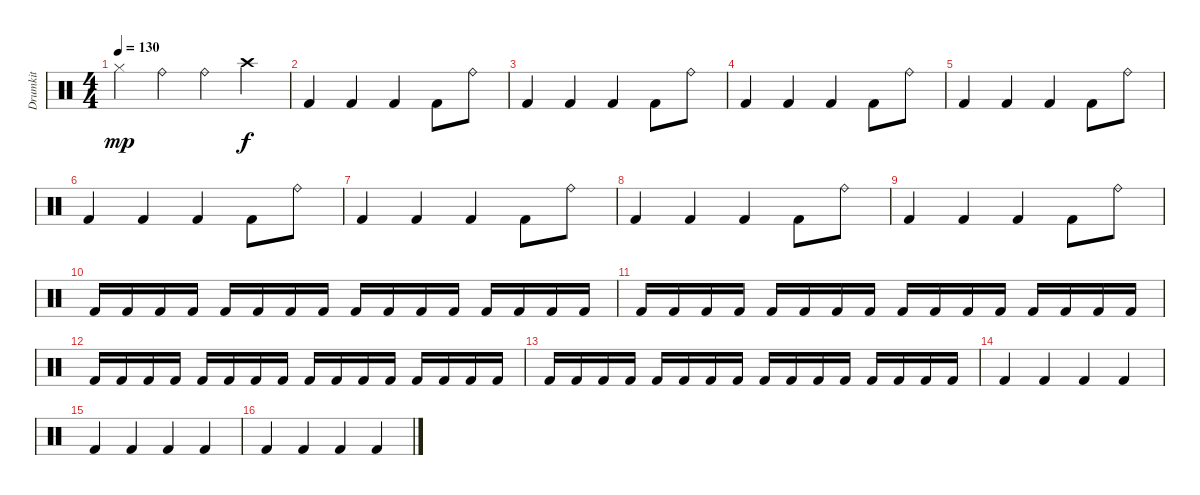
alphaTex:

\track ("Drumkit" "Drumkit") {instrument percussion}
\staff {score}
\articulation defaults
\ts (4 4)
\tempo 130
\clef neutral
\ks c "Hi-Hat (closed)".4{dy mp} "Ride (bell)".4 "Ride (bell)".4 "Crash high (hit)".4{dy f}
|
"Kick (hit) 2".4 "Kick (hit) 2".4 "Kick (hit) 2".4 "Kick (hit) 2".8 "Ride (bell)".8 |
"Kick (hit) 2".4 "Kick (hit) 2".4 "Kick (hit) 2".4 "Kick (hit) 2".8 "Ride (bell)".8 |
"Kick (hit) 2".4 "Kick (hit) 2".4 "Kick (hit) 2".4 "Kick (hit) 2".8 "Ride (bell)".8 |
"Kick (hit) 2".4 "Kick (hit) 2".4 "Kick (hit) 2".4 "Kick (hit) 2".8 "Ride (bell)".8 |
"Kick (hit) 2".4 "Kick (hit) 2".4 "Kick (hit) 2".4 "Kick (hit) 2".8 "Ride (bell)".8 |
"Kick (hit) 2".4 "Kick (hit) 2".4 "Kick (hit) 2".4 "Kick (hit) 2".8 "Ride (bell)".8 |
"Kick (hit) 2".4 "Kick (hit) 2".4 "Kick (hit) 2".4 "Kick (hit) 2".8 "Ride (bell)".8 |
"Kick (hit) 2".4 "Kick (hit) 2".4 "Kick (hit) 2".4 "Kick (hit) 2".8 "Ride (bell)".8 |
"Kick (hit) 2".16 "Kick (hit) 2".16 "Kick (hit) 2".16 "Kick (hit) 2".16 "Kick (hit) 2".16 "Kick (hit) 2".16 "Kick (hit) 2".16 "Kick (hit) 2".16 "Kick (hit) 2".16 "Kick (hit) 2".16 "Kick (hit) 2".16 "Kick (hit) 2".16 "Kick (hit) 2".16 "Kick (hit) 2".16 "Kick (hit) 2".16 "Kick (hit) 2".16 |
"Kick (hit) 2".16 "Kick (hit) 2".16 "Kick (hit) 2".16 "Kick (hit) 2".16 "Kick (hit) 2".16 "Kick (hit) 2".16 "Kick (hit) 2".16 "Kick (hit) 2".16 "Kick (hit) 2".16 "Kick (hit) 2".16 "Kick (hit) 2".16 "Kick (hit) 2".16 "Kick (hit) 2".16 "Kick (hit) 2".16 "Kick (hit) 2".16 "Kick (hit) 2".16 |
"Kick (hit) 2".16 "Kick (hit) 2".16 "Kick (hit) 2".16 "Kick (hit) 2".16 "Kick (hit) 2".16 "Kick (hit) 2".16 "Kick (hit) 2".16 "Kick (hit) 2".16 "Kick (hit) 2".16 "Kick (hit) 2".16 "Kick (hit) 2".16 "Kick (hit) 2".16 "Kick (hit) 2".16 "Kick (hit) 2".16 "Kick (hit) 2".16 "Kick (hit) 2".16 |
"Kick (hit) 2".16 "Kick (hit) 2".16 "Kick (hit) 2".16 "Kick (hit) 2".16 "Kick (hit) 2".16 "Kick (hit) 2".16 "Kick (hit) 2".16 "Kick (hit) 2".16 "Kick (hit) 2".16 "Kick (hit) 2".16 "Kick (hit) 2".16 "Kick (hit) 2".16 "Kick (hit) 2".16 "Kick (hit) 2".16 "Kick (hit) 2".16 "Kick (hit) 2".16 |
"Kick (hit) 2".4 "Kick (hit) 2".4 "Kick (hit) 2".4 "Kick (hit) 2".4 |
"Kick (hit) 2".4 "Kick (hit) 2".4 "Kick (hit) 2".4 "Kick (hit) 2".4 |
"Kick (hit) 2".4 "Kick (hit) 2".4 "Kick (hit) 2".4 "Kick (hit) 2".4
